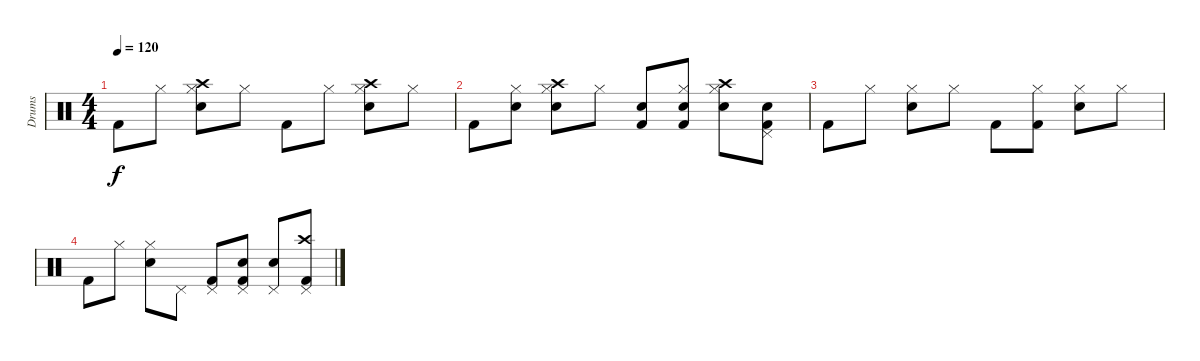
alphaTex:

\track ("Drums" "Drums") {instrument percussion}
\staff {score}
\articulation defaults
\ts (4 4)
\tempo 120
\clef neutral
\ks c "Kick (hit) 2".8{dy f} "Hi-Hat (closed)".8
("Hi-Hat (closed)" "Crash high (hit)" "Snare (hit) 2").8 "Hi-Hat (closed)".8 "Kick (hit) 2".8 "Hi-Hat (closed)".8 ("Hi-Hat (closed)" "Crash high (hit)" "Snare (hit) 2").8 "Hi-Hat (closed)".8 |
"Kick (hit) 2".8 ("Hi-Hat (closed)" "Snare (hit) 2").8 ("Hi-Hat (closed)" "Crash high (hit)" "Snare (hit) 2").8 "Hi-Hat (closed)".8 ("Snare (hit) 2" "Kick (hit) 2").8 ("Hi-Hat (closed)" "Snare (hit) 2" "Kick (hit) 2").8 ("Hi-Hat (closed)" "Crash high (hit)" "Snare (hit) 2").8 ("Pedal Hi-Hat (hit)" "Snare (hit) 2" "Kick (hit) 2").8 |
"Kick (hit) 2".8 "Hi-Hat (closed)".8 ("Hi-Hat (closed)" "Snare (hit) 2").8 "Hi-Hat (closed)".8 "Kick (hit) 2".8 ("Hi-Hat (closed)" "Kick (hit) 2").8 ("Hi-Hat (closed)" "Snare (hit) 2").8 "Hi-Hat (closed)".8 |
"Kick (hit) 2".8 "Hi-Hat (closed)".8 ("Hi-Hat (closed)" "Snare (hit) 2").8 "Pedal Hi-Hat (hit)".8 ("Pedal Hi-Hat (hit)" "Kick (hit) 2").8 ("Pedal Hi-Hat (hit)" "Snare (hit) 2" "Kick (hit) 2").8 ("Pedal Hi-Hat (hit)" "Snare (hit) 2").8 ("Pedal Hi-Hat (hit)" "Crash high (hit)" "Kick (hit) 2").8
